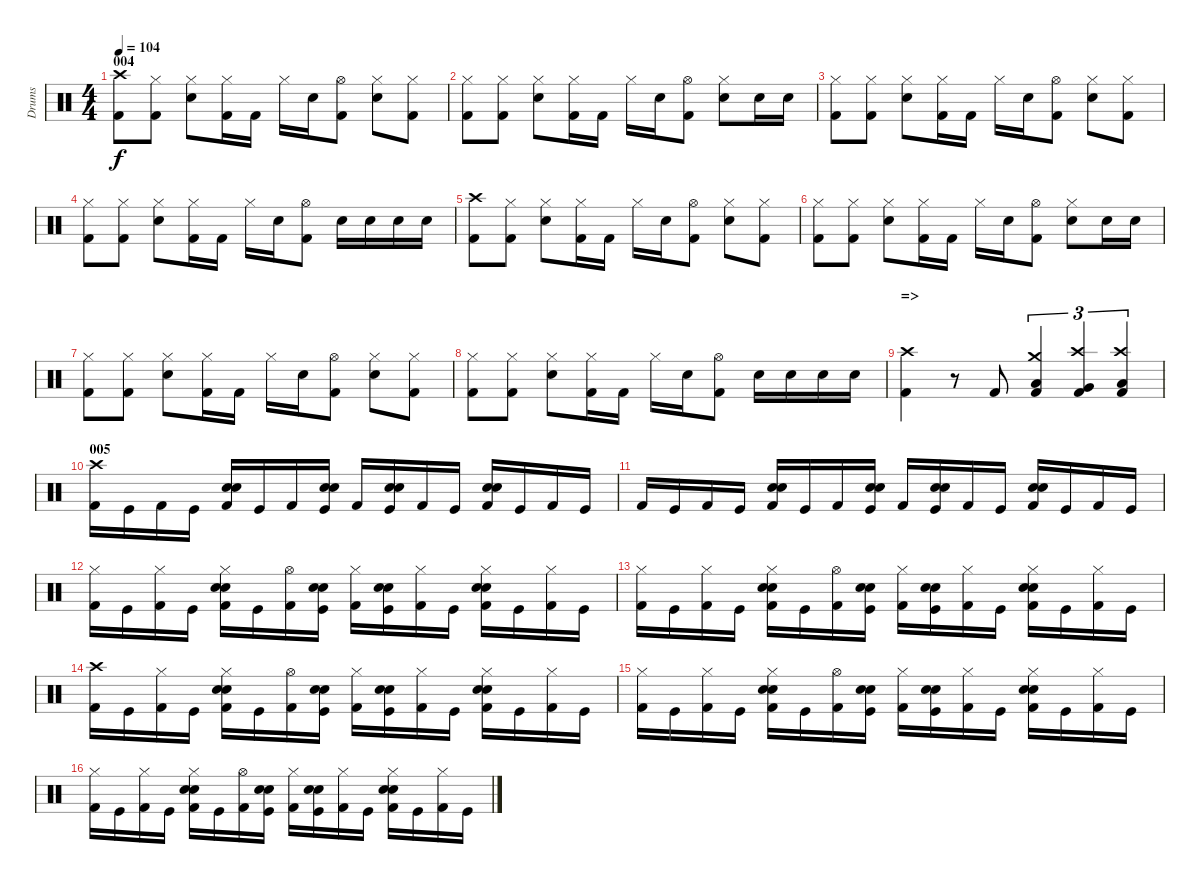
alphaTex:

\track ("Drums" "Drums") {instrument percussion}
\staff {score}
\articulation defaults
\ts (4 4)
\section ("" "004")
\tempo 104
\clef neutral
\ks c
("Kick (hit) 2" "Crash high (hit)").8{dy f} ("Kick (hit) 2" "Hi-Hat (closed)").8 ("Electric Snare (hit)" "Hi-Hat (closed)").8 ("Kick (hit) 2" "Hi-Hat (closed)").16 "Kick (hit) 2".16 "Hi-Hat (closed)".16 "Electric Snare (hit)".16 ("Kick (hit) 2" "Hi-Hat (open)").8 ("Electric Snare (hit)" "Hi-Hat (closed)").8 ("Kick (hit) 2" "Hi-Hat (closed)").8 |
("Kick (hit) 2" "Hi-Hat (closed)").8 ("Kick (hit) 2" "Hi-Hat (closed)").8 ("Electric Snare (hit)" "Hi-Hat (closed)").8 ("Kick (hit) 2" "Hi-Hat (closed)").16 "Kick (hit) 2".16 "Hi-Hat (closed)".16 "Electric Snare (hit)".16 ("Kick (hit) 2" "Hi-Hat (open)").8 ("Electric Snare (hit)" "Hi-Hat (closed)").8 "Electric Snare (hit)".16 "Electric Snare (hit)".16 |
("Kick (hit) 2" "Hi-Hat (closed)").8 ("Kick (hit) 2" "Hi-Hat (closed)").8 ("Electric Snare (hit)" "Hi-Hat (closed)").8 ("Kick (hit) 2" "Hi-Hat (closed)").16 "Kick (hit) 2".16 "Hi-Hat (closed)".16 "Electric Snare (hit)".16 ("Kick (hit) 2" "Hi-Hat (open)").8 ("Electric Snare (hit)" "Hi-Hat (closed)").8 ("Kick (hit) 2" "Hi-Hat (closed)").8 |
("Kick (hit) 2" "Hi-Hat (closed)").8 ("Kick (hit) 2" "Hi-Hat (closed)").8 ("Electric Snare (hit)" "Hi-Hat (closed)").8 ("Kick (hit) 2" "Hi-Hat (closed)").16 "Kick (hit) 2".16 "Hi-Hat (closed)".16 "Electric Snare (hit)".16 ("Kick (hit) 2" "Hi-Hat (open)").8 "Electric Snare (hit)".16 "Electric Snare (hit)".16 "Electric Snare (hit)".16 "Electric Snare (hit)".16 |
("Kick (hit) 2" "Crash high (hit)").8 ("Kick (hit) 2" "Hi-Hat (closed)").8 ("Electric Snare (hit)" "Hi-Hat (closed)").8 ("Kick (hit) 2" "Hi-Hat (closed)").16 "Kick (hit) 2".16 "Hi-Hat (closed)".16 "Electric Snare (hit)".16 ("Kick (hit) 2" "Hi-Hat (open)").8 ("Electric Snare (hit)" "Hi-Hat (closed)").8 ("Kick (hit) 2" "Hi-Hat (closed)").8 |
("Kick (hit) 2" "Hi-Hat (closed)").8 ("Kick (hit) 2" "Hi-Hat (closed)").8 ("Electric Snare (hit)" "Hi-Hat (closed)").8 ("Kick (hit) 2" "Hi-Hat (closed)").16 "Kick (hit) 2".16 "Hi-Hat (closed)".16 "Electric Snare (hit)".16 ("Kick (hit) 2" "Hi-Hat (open)").8 ("Electric Snare (hit)" "Hi-Hat (closed)").8 "Electric Snare (hit)".16 "Electric Snare (hit)".16 |
("Kick (hit) 2" "Hi-Hat (closed)").8 ("Kick (hit) 2" "Hi-Hat (closed)").8 ("Electric Snare (hit)" "Hi-Hat (closed)").8 ("Kick (hit) 2" "Hi-Hat (closed)").16 "Kick (hit) 2".16 "Hi-Hat (closed)".16 "Electric Snare (hit)".16 ("Kick (hit) 2" "Hi-Hat (open)").8 ("Electric Snare (hit)" "Hi-Hat (closed)").8 ("Kick (hit) 2" "Hi-Hat (closed)").8 |
("Kick (hit) 2" "Hi-Hat (closed)").8 ("Kick (hit) 2" "Hi-Hat (closed)").8 ("Electric Snare (hit)" "Hi-Hat (closed)").8 ("Kick (hit) 2" "Hi-Hat (closed)").16 "Kick (hit) 2".16 "Hi-Hat (closed)".16 "Electric Snare (hit)".16 ("Kick (hit) 2" "Hi-Hat (open)").8 "Electric Snare (hit)".16 "Electric Snare (hit)".16 "Electric Snare (hit)".16 "Electric Snare (hit)".16 |
\section ("" "=>")
("Crash high (hit)" "Kick (hit) 2").4 r.8 "Kick (hit) 2".8 ("Crash medium (hit)" "Low Tom (hit)" "Kick (hit) 2").4{tu (3 2)} ("Crash high (hit)" "Very Low Tom (hit)" "Kick (hit) 2").4{tu (3 2)} ("Crash high (hit)" "Low Floor Tom (hit)" "Kick (hit) 2").4{tu (3 2)} |
\section ("" "005")
("Crash high (hit)" "Kick (hit) 2").16 "Kick (hit)".16 "Kick (hit) 2".16 "Kick (hit)".16 ("Electric Snare (hit)" "Snare (hit) 2" "Kick (hit) 2").16 "Kick (hit)".16 "Kick (hit) 2".16 ("Electric Snare (hit)" "Snare (hit) 2" "Kick (hit)").16 "Kick (hit) 2".16 ("Electric Snare (hit)" "Snare (hit) 2" "Kick (hit)").16 "Kick (hit) 2".16 "Kick (hit)".16 ("Electric Snare (hit)" "Snare (hit) 2" "Kick (hit) 2").16 "Kick (hit)".16 "Kick (hit) 2".16 "Kick (hit)".16 |
"Kick (hit) 2".16 "Kick (hit)".16 "Kick (hit) 2".16 "Kick (hit)".16 ("Electric Snare (hit)" "Snare (hit) 2" "Kick (hit) 2").16 "Kick (hit)".16 "Kick (hit) 2".16 ("Electric Snare (hit)" "Snare (hit) 2" "Kick (hit)").16 "Kick (hit) 2".16 ("Electric Snare (hit)" "Snare (hit) 2" "Kick (hit)").16 "Kick (hit) 2".16 "Kick (hit)".16 ("Electric Snare (hit)" "Snare (hit) 2" "Kick (hit) 2").16 "Kick (hit)".16 "Kick (hit) 2".16 "Kick (hit)".16 |
("Hi-Hat (closed)" "Kick (hit) 2").16 "Kick (hit)".16 ("Hi-Hat (closed)" "Kick (hit) 2").16 "Kick (hit)".16 ("Electric Snare (hit)" "Snare (hit) 2" "Hi-Hat (closed)" "Kick (hit) 2").16 "Kick (hit)".16 ("Hi-Hat (open)" "Kick (hit) 2").16 ("Electric Snare (hit)" "Snare (hit) 2" "Kick (hit)").16 ("Hi-Hat (closed)" "Kick (hit) 2").16 ("Electric Snare (hit)" "Snare (hit) 2" "Kick (hit)").16 ("Hi-Hat (closed)" "Kick (hit) 2").16 "Kick (hit)".16 ("Electric Snare (hit)" "Snare (hit) 2" "Hi-Hat (closed)" "Kick (hit) 2").16 "Kick (hit)".16 ("Hi-Hat (closed)" "Kick (hit) 2").16 "Kick (hit)".16 |
("Hi-Hat (closed)" "Kick (hit) 2").16 "Kick (hit)".16 ("Hi-Hat (closed)" "Kick (hit) 2").16 "Kick (hit)".16 ("Electric Snare (hit)" "Snare (hit) 2" "Hi-Hat (closed)" "Kick (hit) 2").16 "Kick (hit)".16 ("Hi-Hat (open)" "Kick (hit) 2").16 ("Electric Snare (hit)" "Snare (hit) 2" "Kick (hit)").16 ("Hi-Hat (closed)" "Kick (hit) 2").16 ("Electric Snare (hit)" "Snare (hit) 2" "Kick (hit)").16 ("Hi-Hat (closed)" "Kick (hit) 2").16 "Kick (hit)".16 ("Electric Snare (hit)" "Snare (hit) 2" "Hi-Hat (closed)" "Kick (hit) 2").16 "Kick (hit)".16 ("Hi-Hat (closed)" "Kick (hit) 2").16 "Kick (hit)".16 |
("Crash high (hit)" "Kick (hit) 2").16 "Kick (hit)".16 ("Hi-Hat (closed)" "Kick (hit) 2").16 "Kick (hit)".16 ("Electric Snare (hit)" "Snare (hit) 2" "Hi-Hat (closed)" "Kick (hit) 2").16 "Kick (hit)".16 ("Hi-Hat (open)" "Kick (hit) 2").16 ("Electric Snare (hit)" "Snare (hit) 2" "Kick (hit)").16 ("Hi-Hat (closed)" "Kick (hit) 2").16 ("Electric Snare (hit)" "Snare (hit) 2" "Kick (hit)").16 ("Hi-Hat (closed)" "Kick (hit) 2").16 "Kick (hit)".16 ("Electric Snare (hit)" "Snare (hit) 2" "Hi-Hat (closed)" "Kick (hit) 2").16 "Kick (hit)".16 ("Hi-Hat (closed)" "Kick (hit) 2").16 "Kick (hit)".16 |
("Hi-Hat (closed)" "Kick (hit) 2").16 "Kick (hit)".16 ("Hi-Hat (closed)" "Kick (hit) 2").16 "Kick (hit)".16 ("Electric Snare (hit)" "Snare (hit) 2" "Hi-Hat (closed)" "Kick (hit) 2").16 "Kick (hit)".16 ("Hi-Hat (open)" "Kick (hit) 2").16 ("Electric Snare (hit)" "Snare (hit) 2" "Kick (hit)").16 ("Hi-Hat (closed)" "Kick (hit) 2").16 ("Electric Snare (hit)" "Snare (hit) 2" "Kick (hit)").16 ("Hi-Hat (closed)" "Kick (hit) 2").16 "Kick (hit)".16 ("Electric Snare (hit)" "Snare (hit) 2" "Hi-Hat (closed)" "Kick (hit) 2").16 "Kick (hit)".16 ("Hi-Hat (closed)" "Kick (hit) 2").16 "Kick (hit)".16 |
("Hi-Hat (closed)" "Kick (hit) 2").16 "Kick (hit)".16 ("Hi-Hat (closed)" "Kick (hit) 2").16 "Kick (hit)".16 ("Electric Snare (hit)" "Snare (hit) 2" "Hi-Hat (closed)" "Kick (hit) 2").16 "Kick (hit)".16 ("Hi-Hat (open)" "Kick (hit) 2").16 ("Electric Snare (hit)" "Snare (hit) 2" "Kick (hit)").16 ("Hi-Hat (closed)" "Kick (hit) 2").16 ("Electric Snare (hit)" "Snare (hit) 2" "Kick (hit)").16 ("Hi-Hat (closed)" "Kick (hit) 2").16 "Kick (hit)".16 ("Electric Snare (hit)" "Snare (hit) 2" "Hi-Hat (closed)" "Kick (hit) 2").16 "Kick (hit)".16 ("Hi-Hat (closed)" "Kick (hit) 2").16 "Kick (hit)".16
